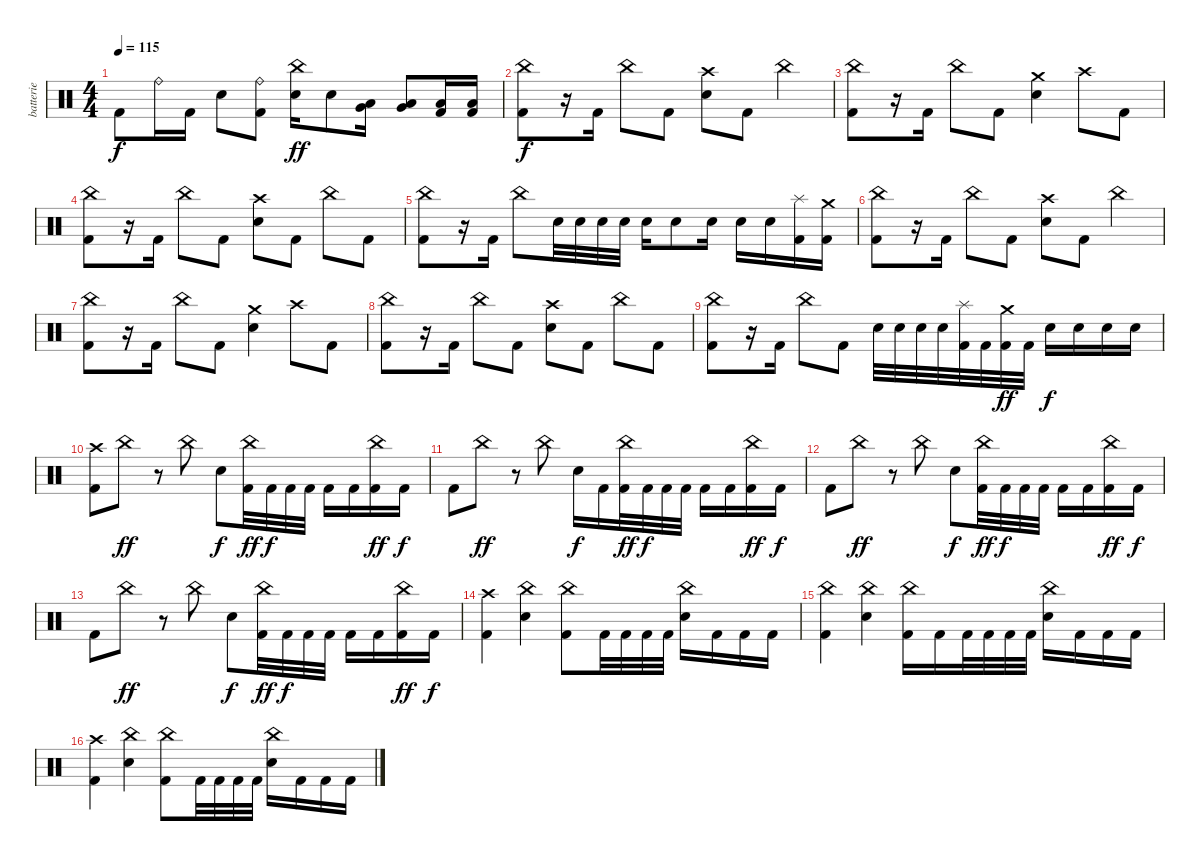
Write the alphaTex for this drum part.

\track ("batterie" "batterie") {instrument percussion}
\staff {score}
\articulation defaults
\ts (4 4)
\tempo 115
\clef neutral
\ks c "Kick (hit) 2".8{dy f} "Ride (bell)".16 "Kick (hit) 2".16 "Electric Snare (hit)".8
("Ride (bell)" "Kick (hit) 2").8 ("China (hit)" "Electric Snare (hit)").16{dy ff} "Electric Snare (hit)".8 ("Low Tom (hit)" "Very Low Tom (hit)").16 ("Low Tom (hit)" "Very Low Tom (hit)").8 ("Low Floor Tom (hit)" "Kick (hit) 2").16 ("Low Floor Tom (hit)" "Kick (hit) 2").16 |
("China (hit)" "Kick (hit) 2").8{dy f} r.16 "Kick (hit) 2".16 "China (hit)".8 "Kick (hit) 2".8 ("Crash high (hit)" "Electric Snare (hit)").8 "Kick (hit) 2".8 "China (hit)".4 |
("China (hit)" "Kick (hit) 2").8 r.16 "Kick (hit) 2".16 "China (hit)".8 "Kick (hit) 2".8 ("Crash medium (hit)" "Electric Snare (hit)").4 "Crash high (hit)".8 "Kick (hit) 2".8 |
("China (hit)" "Kick (hit) 2").8 r.16 "Kick (hit) 2".16 "China (hit)".8 "Kick (hit) 2".8 ("Crash high (hit)" "Electric Snare (hit)").8 "Kick (hit) 2".8 "China (hit)".8 "Kick (hit) 2".8 |
("China (hit)" "Kick (hit) 2").8 r.16 "Kick (hit) 2".16 "China (hit)".8 "Electric Snare (hit)".32 "Electric Snare (hit)".32 "Electric Snare (hit)".32 "Electric Snare (hit)".32 "Electric Snare (hit)".16 "Electric Snare (hit)".8 "Electric Snare (hit)".16 "Electric Snare (hit)".16 "Electric Snare (hit)".16 ("Splash (hit)" "Kick (hit) 2").16 ("Crash medium (hit)" "Kick (hit) 2").16 |
("China (hit)" "Kick (hit) 2").8 r.16 "Kick (hit) 2".16 "China (hit)".8 "Kick (hit) 2".8 ("Crash high (hit)" "Electric Snare (hit)").8 "Kick (hit) 2".8 "China (hit)".4 |
("China (hit)" "Kick (hit) 2").8 r.16 "Kick (hit) 2".16 "China (hit)".8 "Kick (hit) 2".8 ("Crash medium (hit)" "Electric Snare (hit)").4 "Crash high (hit)".8 "Kick (hit) 2".8 |
("China (hit)" "Kick (hit) 2").8 r.16 "Kick (hit) 2".16 "China (hit)".8 "Kick (hit) 2".8 ("Crash high (hit)" "Electric Snare (hit)").8 "Kick (hit) 2".8 "China (hit)".8 "Kick (hit) 2".8 |
("China (hit)" "Kick (hit) 2").8 r.16 "Kick (hit) 2".16 "China (hit)".8 "Kick (hit) 2".8 "Electric Snare (hit)".32 "Electric Snare (hit)".32 "Electric Snare (hit)".32 "Electric Snare (hit)".32 ("Splash (hit)" "Kick (hit) 2").32 "Kick (hit) 2".32 ("Crash medium (hit)" "Kick (hit) 2").32{dy ff} "Kick (hit) 2".32 "Electric Snare (hit)".16{dy f} "Electric Snare (hit)".16 "Electric Snare (hit)".16 "Electric Snare (hit)".16 |
("Crash high (hit)" "Kick (hit) 2").8 "China (hit)".8{dy ff} r.8 "China (hit)".8 "Electric Snare (hit)".8{dy f} ("China (hit)" "Kick (hit) 2").32{dy ff} "Kick (hit) 2".32{dy f} "Kick (hit) 2".32 "Kick (hit) 2".32 "Kick (hit) 2".16 "Kick (hit) 2".16 ("China (hit)" "Kick (hit) 2").16{dy ff} "Kick (hit) 2".16{dy f} |
"Kick (hit) 2".8 "China (hit)".8{dy ff} r.8 "China (hit)".8 "Electric Snare (hit)".16{dy f} "Kick (hit) 2".16 ("China (hit)" "Kick (hit) 2").32{dy ff} "Kick (hit) 2".32{dy f} "Kick (hit) 2".32 "Kick (hit) 2".32 "Kick (hit) 2".16 "Kick (hit) 2".16 ("China (hit)" "Kick (hit) 2").16{dy ff} "Kick (hit) 2".16{dy f} |
"Kick (hit) 2".8 "China (hit)".8{dy ff} r.8 "China (hit)".8 "Electric Snare (hit)".8{dy f} ("China (hit)" "Kick (hit) 2").32{dy ff} "Kick (hit) 2".32{dy f} "Kick (hit) 2".32 "Kick (hit) 2".32 "Kick (hit) 2".16 "Kick (hit) 2".16 ("China (hit)" "Kick (hit) 2").16{dy ff} "Kick (hit) 2".16{dy f} |
"Kick (hit) 2".8 "China (hit)".8{dy ff} r.8 "China (hit)".8 "Electric Snare (hit)".8{dy f} ("China (hit)" "Kick (hit) 2").32{dy ff} "Kick (hit) 2".32{dy f} "Kick (hit) 2".32 "Kick (hit) 2".32 "Kick (hit) 2".16 "Kick (hit) 2".16 ("China (hit)" "Kick (hit) 2").16{dy ff} "Kick (hit) 2".16{dy f} |
("Crash high (hit)" "Kick (hit) 2").4 ("China (hit)" "Electric Snare (hit)").4 ("China (hit)" "Kick (hit) 2").8 "Kick (hit) 2".32 "Kick (hit) 2".32 "Kick (hit) 2".32 "Kick (hit) 2".32 ("China (hit)" "Electric Snare (hit)").16 "Kick (hit) 2".16 "Kick (hit) 2".16 "Kick (hit) 2".16 |
("China (hit)" "Kick (hit) 2").4 ("China (hit)" "Electric Snare (hit)").4 ("China (hit)" "Kick (hit) 2").16 "Kick (hit) 2".16 "Kick (hit) 2".32 "Kick (hit) 2".32 "Kick (hit) 2".32 "Kick (hit) 2".32 ("China (hit)" "Electric Snare (hit)").16 "Kick (hit) 2".16 "Kick (hit) 2".16 "Kick (hit) 2".16 |
("Crash high (hit)" "Kick (hit) 2").4 ("China (hit)" "Electric Snare (hit)").4 ("China (hit)" "Kick (hit) 2").8 "Kick (hit) 2".32 "Kick (hit) 2".32 "Kick (hit) 2".32 "Kick (hit) 2".32 ("China (hit)" "Electric Snare (hit)").16 "Kick (hit) 2".16 "Kick (hit) 2".16 "Kick (hit) 2".16
